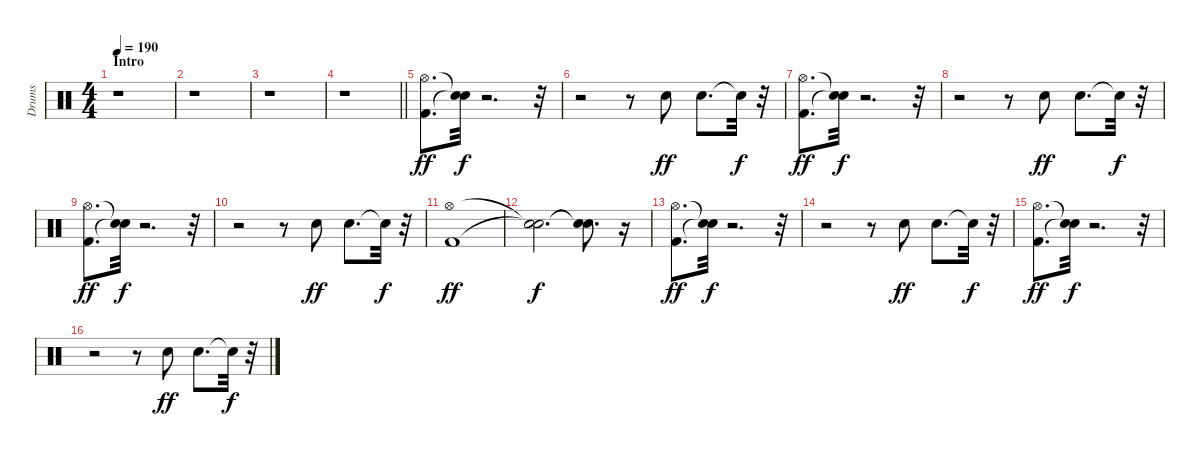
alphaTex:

\track ("Drums" "Drums") {instrument percussion}
\staff {score}
\articulation defaults
\ts (4 4)
\section ("" "Intro")
\tempo 190
\clef neutral
\ks c
r.1{dy ff} |
r.1 |
r.1 |
\barLineRight lightlight
r.1 |
\section ("" "")
("Kick (hit) 2" "Hi-Hat (open)").8{d} ("Snare (hit)"{t} "Snare (hit)"{t}).32{dy f} r.2{d} r.32 |
r.2 r.8 "Snare (hit) 2".8{dy ff} "Snare (hit) 2".8{d} "Snare (hit)"{t}.32{dy f} r.32 |
("Kick (hit) 2" "Hi-Hat (open)").8{d dy ff} ("Snare (hit)"{t} "Snare (hit)"{t}).32{dy f} r.2{d} r.32 |
r.2 r.8 "Snare (hit) 2".8{dy ff} "Snare (hit) 2".8{d} "Snare (hit)"{t}.32{dy f} r.32 |
("Kick (hit) 2" "Hi-Hat (open)").8{d dy ff} ("Snare (hit)"{t} "Snare (hit)"{t}).32{dy f} r.2{d} r.32 |
r.2 r.8 "Snare (hit) 2".8{dy ff} "Snare (hit) 2".8{d} "Snare (hit)"{t}.32{dy f} r.32 |
("Kick (hit) 2" "Hi-Hat (open)").1{dy ff} |
("Snare (hit)"{t} "Snare (hit)"{t}).2{d dy f} ("Snare (hit)"{t} "Snare (hit)"{t}).8{d} r.16 |
("Kick (hit) 2" "Hi-Hat (open)").8{d dy ff} ("Snare (hit)"{t} "Snare (hit)"{t}).32{dy f} r.2{d} r.32 |
r.2 r.8 "Snare (hit) 2".8{dy ff} "Snare (hit) 2".8{d} "Snare (hit)"{t}.32{dy f} r.32 |
("Kick (hit) 2" "Hi-Hat (open)").8{d dy ff} ("Snare (hit)"{t} "Snare (hit)"{t}).32{dy f} r.2{d} r.32 |
r.2 r.8 "Snare (hit) 2".8{dy ff} "Snare (hit) 2".8{d} "Snare (hit)"{t}.32{dy f} r.32
